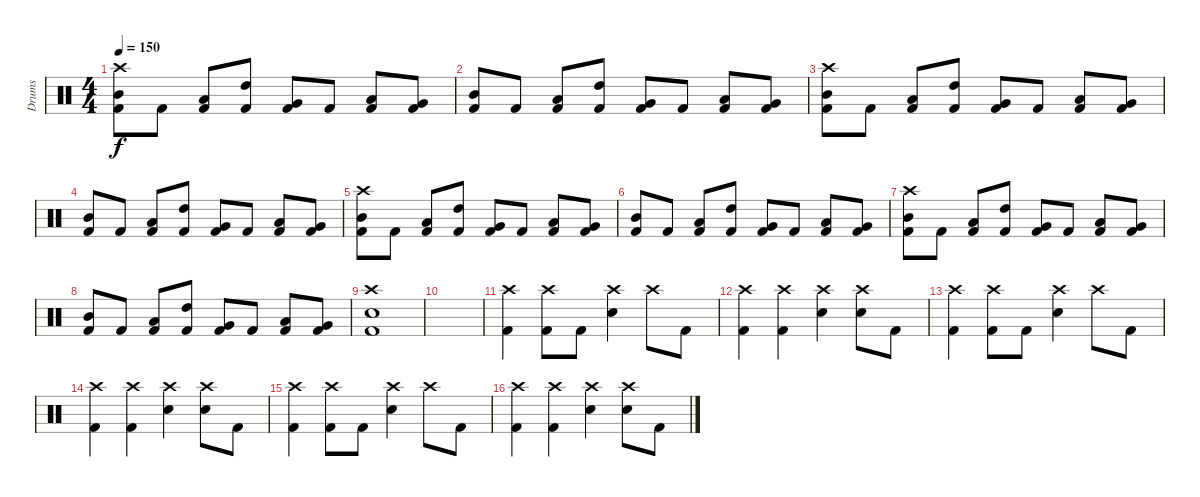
\track ("Drums" "Drums") {instrument percussion}
\staff {score}
\articulation defaults
\ts (4 4)
\tempo 150
\clef neutral
\ks c
("Crash high (hit)" "Mid Tom (hit)" "Kick (hit) 2").8{dy f} "Kick (hit) 2".8 ("Low Tom (hit)" "Kick (hit) 2").8 ("High Tom (hit)" "Kick (hit) 2").8 ("Very Low Tom (hit)" "Kick (hit) 2").8 "Kick (hit) 2".8 ("Low Tom (hit)" "Kick (hit) 2").8 ("Very Low Tom (hit)" "Kick (hit) 2").8 |
("Mid Tom (hit)" "Kick (hit) 2").8 "Kick (hit) 2".8 ("Low Tom (hit)" "Kick (hit) 2").8 ("High Tom (hit)" "Kick (hit) 2").8 ("Very Low Tom (hit)" "Kick (hit) 2").8 "Kick (hit) 2".8 ("Low Tom (hit)" "Kick (hit) 2").8 ("Very Low Tom (hit)" "Kick (hit) 2").8 |
("Crash high (hit)" "Mid Tom (hit)" "Kick (hit) 2").8 "Kick (hit) 2".8 ("Low Tom (hit)" "Kick (hit) 2").8 ("High Tom (hit)" "Kick (hit) 2").8 ("Very Low Tom (hit)" "Kick (hit) 2").8 "Kick (hit) 2".8 ("Low Tom (hit)" "Kick (hit) 2").8 ("Very Low Tom (hit)" "Kick (hit) 2").8 |
("Mid Tom (hit)" "Kick (hit) 2").8 "Kick (hit) 2".8 ("Low Tom (hit)" "Kick (hit) 2").8 ("High Tom (hit)" "Kick (hit) 2").8 ("Very Low Tom (hit)" "Kick (hit) 2").8 "Kick (hit) 2".8 ("Low Tom (hit)" "Kick (hit) 2").8 ("Very Low Tom (hit)" "Kick (hit) 2").8 |
("Crash high (hit)" "Mid Tom (hit)" "Kick (hit) 2").8 "Kick (hit) 2".8 ("Low Tom (hit)" "Kick (hit) 2").8 ("High Tom (hit)" "Kick (hit) 2").8 ("Very Low Tom (hit)" "Kick (hit) 2").8 "Kick (hit) 2".8 ("Low Tom (hit)" "Kick (hit) 2").8 ("Very Low Tom (hit)" "Kick (hit) 2").8 |
("Mid Tom (hit)" "Kick (hit) 2").8 "Kick (hit) 2".8 ("Low Tom (hit)" "Kick (hit) 2").8 ("High Tom (hit)" "Kick (hit) 2").8 ("Very Low Tom (hit)" "Kick (hit) 2").8 "Kick (hit) 2".8 ("Low Tom (hit)" "Kick (hit) 2").8 ("Very Low Tom (hit)" "Kick (hit) 2").8 |
("Crash high (hit)" "Mid Tom (hit)" "Kick (hit) 2").8 "Kick (hit) 2".8 ("Low Tom (hit)" "Kick (hit) 2").8 ("High Tom (hit)" "Kick (hit) 2").8 ("Very Low Tom (hit)" "Kick (hit) 2").8 "Kick (hit) 2".8 ("Low Tom (hit)" "Kick (hit) 2").8 ("Very Low Tom (hit)" "Kick (hit) 2").8 |
("Mid Tom (hit)" "Kick (hit) 2").8 "Kick (hit) 2".8 ("Low Tom (hit)" "Kick (hit) 2").8 ("High Tom (hit)" "Kick (hit) 2").8 ("Very Low Tom (hit)" "Kick (hit) 2").8 "Kick (hit) 2".8 ("Low Tom (hit)" "Kick (hit) 2").8 ("Very Low Tom (hit)" "Kick (hit) 2").8 |
("Crash high (hit)" "Snare (hit) 2" "Kick (hit) 2").1 |
|
("Crash high (hit)" "Kick (hit) 2").4 ("Crash high (hit)" "Kick (hit) 2").8 "Kick (hit) 2".8 ("Crash high (hit)" "Snare (hit) 2").4 "Crash high (hit)".8 "Kick (hit) 2".8 |
("Crash high (hit)" "Kick (hit) 2").4 ("Crash high (hit)" "Kick (hit) 2").4 ("Crash high (hit)" "Snare (hit) 2").4 ("Crash high (hit)" "Snare (hit) 2").8 "Kick (hit) 2".8 |
("Crash high (hit)" "Kick (hit) 2").4 ("Crash high (hit)" "Kick (hit) 2").8 "Kick (hit) 2".8 ("Crash high (hit)" "Snare (hit) 2").4 "Crash high (hit)".8 "Kick (hit) 2".8 |
("Crash high (hit)" "Kick (hit) 2").4 ("Crash high (hit)" "Kick (hit) 2").4 ("Crash high (hit)" "Snare (hit) 2").4 ("Crash high (hit)" "Snare (hit) 2").8 "Kick (hit) 2".8 |
("Crash high (hit)" "Kick (hit) 2").4 ("Crash high (hit)" "Kick (hit) 2").8 "Kick (hit) 2".8 ("Crash high (hit)" "Snare (hit) 2").4 "Crash high (hit)".8 "Kick (hit) 2".8 |
("Crash high (hit)" "Kick (hit) 2").4 ("Crash high (hit)" "Kick (hit) 2").4 ("Crash high (hit)" "Snare (hit) 2").4 ("Crash high (hit)" "Snare (hit) 2").8 "Kick (hit) 2".8
